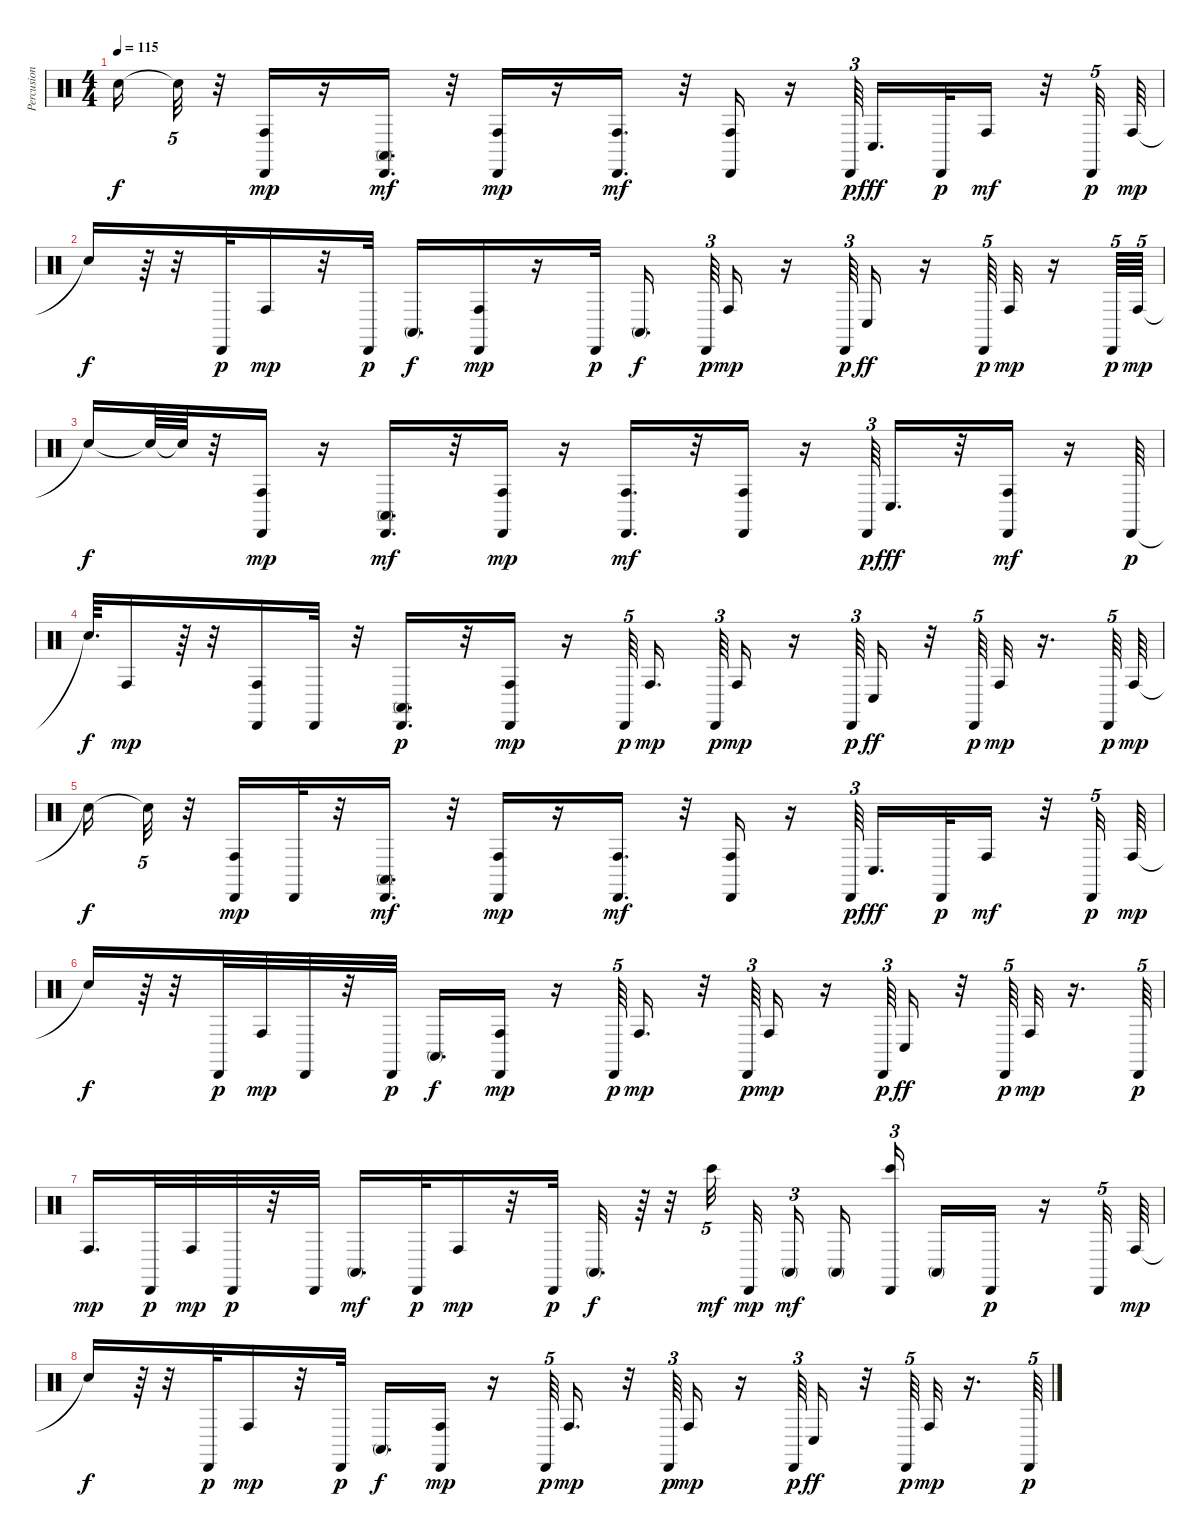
\track ("Percusion" "Percusion") {instrument percussion}
\staff {score}
\articulation defaults
\ts (4 4)
\tempo 115
\clef neutral
\ks c "Snare (hit)"{t}.16{dy f} "Snare (hit)"{t}.32{tu (5 4)}
r.32 ("Cabasa (hit)" "Conga high (hit)").16{dy mp} r.16 ("Cabasa (hit)" "Conga high (mute)").16{d dy mf} r.32 ("Cabasa (hit)" "Conga high (hit)").16{dy mp} r.16 ("Cabasa (hit)" "Conga high (hit)").16{d dy mf} r.32 ("Cabasa (hit)" "Conga high (hit)").16 r.16 "Cabasa (hit)".64{tu (3 2) dy p} "Conga low (hit)".16{d dy fff} "Cabasa (hit)".32{dy p} "Conga high (hit)".16{dy mf} r.32 "Cabasa (hit)".32{tu (5 4) dy p} "Conga high (hit)".64{dy mp} |
"Snare (hit)"{t}.16{dy f} r.64 r.32 "Cabasa (hit)".32{dy p} "Conga high (hit)".16{dy mp} r.32 "Cabasa (hit)".32{dy p} "Conga high (mute)".16{d dy f} ("Cabasa (hit)" "Conga high (hit)").16{dy mp} r.16 "Cabasa (hit)".32{dy p} "Conga high (mute)".16{d dy f beam splitsecondary} "Cabasa (hit)".64{tu (3 2) dy p} "Conga high (hit)".16{dy mp} r.16 "Cabasa (hit)".64{tu (3 2) dy p} "Conga low (hit)".16{dy ff} r.16 "Cabasa (hit)".64{tu (5 4) dy p} "Conga high (hit)".32{dy mp} r.16 "Cabasa (hit)".64{tu (5 4) dy p} "Conga high (hit)".64{tu (5 4) dy mp} |
"Snare (hit)"{t}.16{dy f} "Snare (hit)"{t}.64 "Snare (hit)"{t}.64 r.32 ("Cabasa (hit)" "Conga high (hit)").16{dy mp} r.16 ("Cabasa (hit)" "Conga high (mute)").16{d dy mf} r.32 ("Cabasa (hit)" "Conga high (hit)").16{dy mp} r.16 ("Cabasa (hit)" "Conga high (hit)").16{d dy mf} r.32 ("Cabasa (hit)" "Conga high (hit)").16 r.16 "Cabasa (hit)".64{tu (3 2) dy p} "Conga low (hit)".16{d dy fff} r.32 ("Cabasa (hit)" "Conga high (hit)").16{dy mf} r.16 "Cabasa (hit)".64{dy p} |
"Snare (hit)"{t}.64{d dy f} "Conga high (hit)".16{dy mp} r.64 r.32 ("Cabasa (hit)" "Conga high (hit)").16 "Cabasa (hit)".32 r.32 ("Cabasa (hit)" "Conga high (mute)").16{d dy p} r.32 ("Cabasa (hit)" "Conga high (hit)").16{dy mp} r.16 "Cabasa (hit)".64{tu (5 4) dy p beam splitsecondary} "Conga high (hit)".16{d dy mp beam splitsecondary} "Cabasa (hit)".64{tu (3 2) dy p} "Conga high (hit)".16{dy mp} r.16 "Cabasa (hit)".64{tu (3 2) dy p} "Conga low (hit)".16{dy ff} r.32 "Cabasa (hit)".64{tu (5 4) dy p} "Conga high (hit)".32{dy mp} r.16{d} "Cabasa (hit)".64{tu (5 4) dy p} "Conga high (hit)".64{dy mp} |
"Snare (hit)"{t}.16{dy f} "Snare (hit)"{t}.32{tu (5 4)} r.32 ("Cabasa (hit)" "Conga high (hit)").16{dy mp} "Cabasa (hit)".32 r.32 ("Cabasa (hit)" "Conga high (mute)").16{d dy mf} r.32 ("Cabasa (hit)" "Conga high (hit)").16{dy mp} r.16 ("Cabasa (hit)" "Conga high (hit)").16{d dy mf} r.32 ("Cabasa (hit)" "Conga high (hit)").16 r.16 "Cabasa (hit)".64{tu (3 2) dy p} "Conga low (hit)".16{d dy fff} "Cabasa (hit)".32{dy p} "Conga high (hit)".16{dy mf} r.32 "Cabasa (hit)".32{tu (5 4) dy p} "Conga high (hit)".64{dy mp} |
"Snare (hit)"{t}.16{dy f} r.64 r.32 "Cabasa (hit)".32{dy p} "Conga high (hit)".32{dy mp} "Cabasa (hit)".32 r.32 "Cabasa (hit)".32{dy p} "Conga high (mute)".16{d dy f} ("Cabasa (hit)" "Conga high (hit)").16{dy mp} r.16 "Cabasa (hit)".64{tu (5 4) dy p} "Conga high (hit)".16{d dy mp} r.32 "Cabasa (hit)".64{tu (3 2) dy p} "Conga high (hit)".16{dy mp} r.16 "Cabasa (hit)".64{tu (3 2) dy p} "Conga low (hit)".16{dy ff} r.32 "Cabasa (hit)".64{tu (5 4) dy p} "Conga high (hit)".32{dy mp} r.16{d} "Cabasa (hit)".64{tu (5 4) dy p} |
"Conga high (hit)".16{d dy mp} "Cabasa (hit)".32{dy p} "Conga high (hit)".32{dy mp} "Cabasa (hit)".32{dy p} r.32 "Cabasa (hit)".32 "Conga high (mute)".16{d dy mf} "Cabasa (hit)".32{dy p} "Conga high (hit)".16{dy mp} r.32 "Cabasa (hit)".32{dy p} "Conga high (mute)".32{d dy f} r.64 r.32 "Bongo High (hit)".32{tu (5 4) dy mf beam splitsecondary} "Cabasa (hit)".32{dy mp beam splitsecondary} "Conga high (mute)".16{tu (3 2) dy mf} "Conga high (mute)".16 ("Cabasa (hit)" "Bongo High (hit)").16{tu (3 2) beam splitsecondary} "Conga high (mute)".16 "Cabasa (hit)".16{dy p} r.16 "Cabasa (hit)".32{tu (5 4)} "Conga high (hit)".64{dy mp} |
"Snare (hit)"{t}.16{dy f} r.64 r.32 "Cabasa (hit)".32{dy p} "Conga high (hit)".16{dy mp} r.32 "Cabasa (hit)".32{dy p} "Conga high (mute)".16{d dy f} ("Cabasa (hit)" "Conga high (hit)").16{dy mp} r.16 "Cabasa (hit)".64{tu (5 4) dy p} "Conga high (hit)".16{d dy mp} r.32 "Cabasa (hit)".64{tu (3 2) dy p} "Conga high (hit)".16{dy mp} r.16 "Cabasa (hit)".64{tu (3 2) dy p} "Conga low (hit)".16{dy ff} r.32 "Cabasa (hit)".64{tu (5 4) dy p} "Conga high (hit)".32{dy mp} r.16{d} "Cabasa (hit)".64{tu (5 4) dy p}
